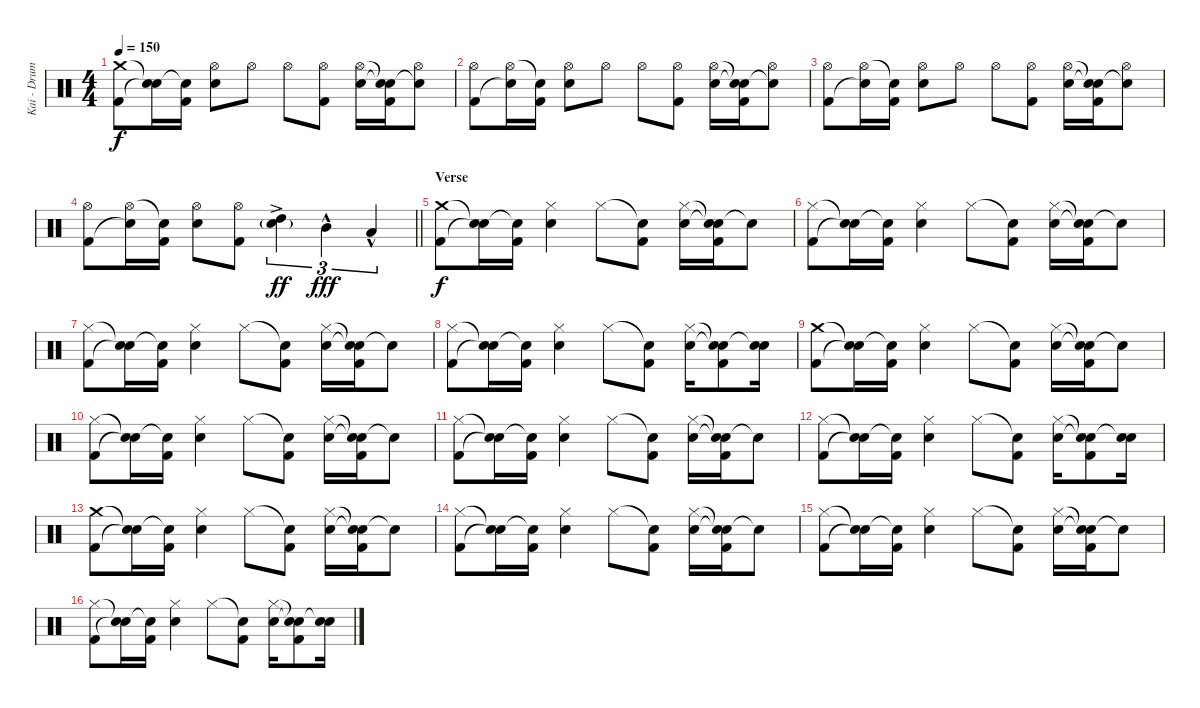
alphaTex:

\track ("Kai - Drums" "Kai - Drum") {instrument percussion}
\staff {score}
\articulation defaults
\ts (4 4)
\tempo 150
\clef neutral
\ks c
("Crash medium (hit)" "Kick (hit) 2").8{dy f} ("Snare (hit)"{t} "Snare (hit)"{t}).16 ("Snare (hit)"{t} "Kick (hit) 2").16 ("Hi-Hat (open)" "Snare (hit) 2").8 "Hi-Hat (open)".8 "Hi-Hat (open)".8 ("Hi-Hat (open)" "Kick (hit) 2").8 ("Hi-Hat (open)" "Snare (hit) 2").16 ("Snare (hit)"{t} "Snare (hit)"{t} "Kick (hit) 2").16 ("Hi-Hat (open)" "Snare (hit)"{t}).8 |
("Hi-Hat (open)" "Kick (hit) 2").8 ("Hi-Hat (open)" "Snare (hit)"{t}).16 ("Snare (hit)"{t} "Kick (hit) 2").16 ("Hi-Hat (open)" "Snare (hit) 2").8 "Hi-Hat (open)".8 "Hi-Hat (open)".8 ("Hi-Hat (open)" "Kick (hit) 2").8 ("Hi-Hat (open)" "Snare (hit) 2").16 ("Snare (hit)"{t} "Snare (hit)"{t} "Kick (hit) 2").16 ("Hi-Hat (open)" "Snare (hit)"{t}).8 |
("Hi-Hat (open)" "Kick (hit) 2").8 ("Hi-Hat (open)" "Snare (hit)"{t}).16 ("Snare (hit)"{t} "Kick (hit) 2").16 ("Hi-Hat (open)" "Snare (hit) 2").8 "Hi-Hat (open)".8 "Hi-Hat (open)".8 ("Hi-Hat (open)" "Kick (hit) 2").8 ("Hi-Hat (open)" "Snare (hit) 2").16 ("Snare (hit)"{t} "Snare (hit)"{t} "Kick (hit) 2").16 ("Hi-Hat (open)" "Snare (hit)"{t}).8 |
\barLineRight lightlight
("Hi-Hat (open)" "Kick (hit) 2").8 ("Hi-Hat (open)" "Snare (hit)"{t}).16 ("Snare (hit)"{t} "Kick (hit) 2").16 ("Hi-Hat (open)" "Snare (hit) 2").8 ("Hi-Hat (open)" "Kick (hit) 2").8 ("Snare (hit) 2"{g} "High Tom (hit)"{ac}).4{tu (3 2) dy ff} "Mid Tom (hit)"{hac}.4{tu (3 2) dy fff} "Low Tom (hit)"{hac}.4{tu (3 2)} |
\section ("" "Verse")
("Crash medium (hit)" "Kick (hit) 2").8{dy f} ("Snare (hit)"{t} "Snare (hit)"{t}).16 ("Snare (hit)"{t} "Kick (hit) 2").16 ("Hi-Hat (closed)" "Snare (hit) 2").4 "Hi-Hat (closed)".8 ("Snare (hit)"{t} "Kick (hit) 2").8 ("Hi-Hat (closed)" "Snare (hit) 2").16 ("Snare (hit)"{t} "Snare (hit)"{t} "Kick (hit) 2").16 "Snare (hit)"{t}.8 |
("Hi-Hat (closed)" "Kick (hit) 2").8 ("Snare (hit)"{t} "Snare (hit)"{t}).16 ("Snare (hit)"{t} "Kick (hit) 2").16 ("Hi-Hat (closed)" "Snare (hit) 2").4 "Hi-Hat (closed)".8 ("Snare (hit)"{t} "Kick (hit) 2").8 ("Hi-Hat (closed)" "Snare (hit) 2").16 ("Snare (hit)"{t} "Snare (hit)"{t} "Kick (hit) 2").16 "Snare (hit)"{t}.8 |
("Hi-Hat (closed)" "Kick (hit) 2").8 ("Snare (hit)"{t} "Snare (hit)"{t}).16 ("Snare (hit)"{t} "Kick (hit) 2").16 ("Hi-Hat (closed)" "Snare (hit) 2").4 "Hi-Hat (closed)".8 ("Snare (hit)"{t} "Kick (hit) 2").8 ("Hi-Hat (closed)" "Snare (hit) 2").16 ("Snare (hit)"{t} "Snare (hit)"{t} "Kick (hit) 2").16 "Snare (hit)"{t}.8 |
("Hi-Hat (closed)" "Kick (hit) 2").8 ("Snare (hit)"{t} "Snare (hit)"{t}).16 ("Snare (hit)"{t} "Kick (hit) 2").16 ("Hi-Hat (closed)" "Snare (hit) 2").4 "Hi-Hat (closed)".8 ("Snare (hit)"{t} "Kick (hit) 2").8 ("Hi-Hat (closed)" "Snare (hit) 2").16 ("Snare (hit)"{t} "Snare (hit)"{t} "Kick (hit) 2").8 ("Snare (hit) 2" "Snare (hit)"{t}).16 |
("Crash medium (hit)" "Kick (hit) 2").8 ("Snare (hit)"{t} "Snare (hit)"{t}).16 ("Snare (hit)"{t} "Kick (hit) 2").16 ("Hi-Hat (closed)" "Snare (hit) 2").4 "Hi-Hat (closed)".8 ("Snare (hit)"{t} "Kick (hit) 2").8 ("Hi-Hat (closed)" "Snare (hit) 2").16 ("Snare (hit)"{t} "Snare (hit)"{t} "Kick (hit) 2").16 "Snare (hit)"{t}.8 |
("Hi-Hat (closed)" "Kick (hit) 2").8 ("Snare (hit)"{t} "Snare (hit)"{t}).16 ("Snare (hit)"{t} "Kick (hit) 2").16 ("Hi-Hat (closed)" "Snare (hit) 2").4 "Hi-Hat (closed)".8 ("Snare (hit)"{t} "Kick (hit) 2").8 ("Hi-Hat (closed)" "Snare (hit) 2").16 ("Snare (hit)"{t} "Snare (hit)"{t} "Kick (hit) 2").16 "Snare (hit)"{t}.8 |
("Hi-Hat (closed)" "Kick (hit) 2").8 ("Snare (hit)"{t} "Snare (hit)"{t}).16 ("Snare (hit)"{t} "Kick (hit) 2").16 ("Hi-Hat (closed)" "Snare (hit) 2").4 "Hi-Hat (closed)".8 ("Snare (hit)"{t} "Kick (hit) 2").8 ("Hi-Hat (closed)" "Snare (hit) 2").16 ("Snare (hit)"{t} "Snare (hit)"{t} "Kick (hit) 2").16 "Snare (hit)"{t}.8 |
("Hi-Hat (closed)" "Kick (hit) 2").8 ("Snare (hit)"{t} "Snare (hit)"{t}).16 ("Snare (hit)"{t} "Kick (hit) 2").16 ("Hi-Hat (closed)" "Snare (hit) 2").4 "Hi-Hat (closed)".8 ("Snare (hit)"{t} "Kick (hit) 2").8 ("Hi-Hat (closed)" "Snare (hit) 2").16 ("Snare (hit)"{t} "Snare (hit)"{t} "Kick (hit) 2").8 ("Snare (hit) 2" "Snare (hit)"{t}).16 |
("Crash medium (hit)" "Kick (hit) 2").8 ("Snare (hit)"{t} "Snare (hit)"{t}).16 ("Snare (hit)"{t} "Kick (hit) 2").16 ("Hi-Hat (closed)" "Snare (hit) 2").4 "Hi-Hat (closed)".8 ("Snare (hit)"{t} "Kick (hit) 2").8 ("Hi-Hat (closed)" "Snare (hit) 2").16 ("Snare (hit)"{t} "Snare (hit)"{t} "Kick (hit) 2").16 "Snare (hit)"{t}.8 |
("Hi-Hat (closed)" "Kick (hit) 2").8 ("Snare (hit)"{t} "Snare (hit)"{t}).16 ("Snare (hit)"{t} "Kick (hit) 2").16 ("Hi-Hat (closed)" "Snare (hit) 2").4 "Hi-Hat (closed)".8 ("Snare (hit)"{t} "Kick (hit) 2").8 ("Hi-Hat (closed)" "Snare (hit) 2").16 ("Snare (hit)"{t} "Snare (hit)"{t} "Kick (hit) 2").16 "Snare (hit)"{t}.8 |
("Hi-Hat (closed)" "Kick (hit) 2").8 ("Snare (hit)"{t} "Snare (hit)"{t}).16 ("Snare (hit)"{t} "Kick (hit) 2").16 ("Hi-Hat (closed)" "Snare (hit) 2").4 "Hi-Hat (closed)".8 ("Snare (hit)"{t} "Kick (hit) 2").8 ("Hi-Hat (closed)" "Snare (hit) 2").16 ("Snare (hit)"{t} "Snare (hit)"{t} "Kick (hit) 2").16 "Snare (hit)"{t}.8 |
("Hi-Hat (closed)" "Kick (hit) 2").8 ("Snare (hit)"{t} "Snare (hit)"{t}).16 ("Snare (hit)"{t} "Kick (hit) 2").16 ("Hi-Hat (closed)" "Snare (hit) 2").4 "Hi-Hat (closed)".8 ("Snare (hit)"{t} "Kick (hit) 2").8 ("Hi-Hat (closed)" "Snare (hit) 2").16 ("Snare (hit)"{t} "Snare (hit)"{t} "Kick (hit) 2").8 ("Snare (hit) 2" "Snare (hit)"{t}).16
